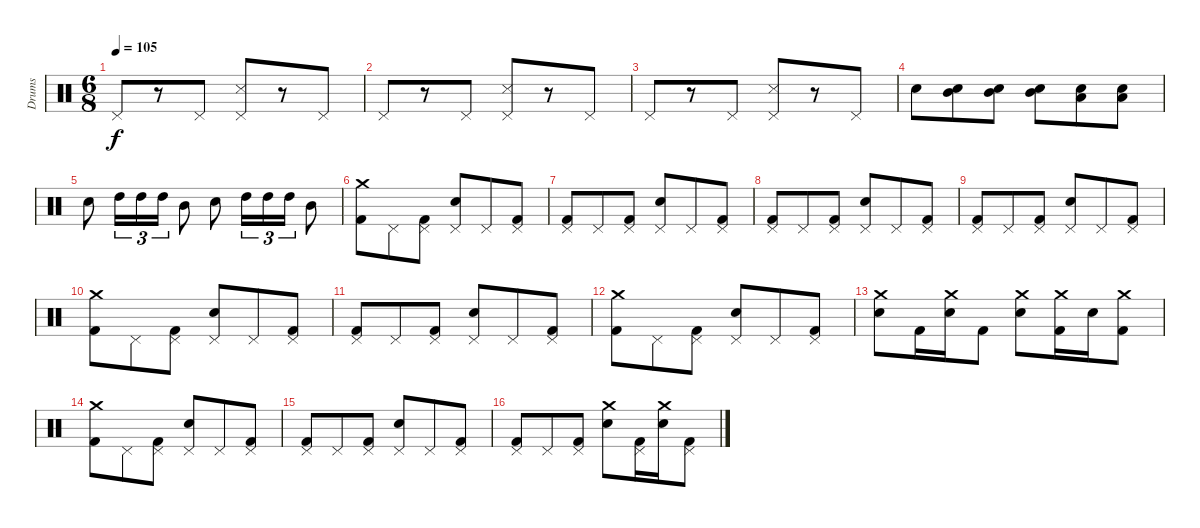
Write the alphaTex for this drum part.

\track ("Drums" "Drums") {instrument percussion}
\staff {score}
\articulation defaults
\ts (6 8)
\tempo 105
\clef neutral
\ks c "Pedal Hi-Hat (hit)".8{dy f}
r.8 "Pedal Hi-Hat (hit)".8 ("Pedal Hi-Hat (hit)" "Metronome (hit)").8 r.8 "Pedal Hi-Hat (hit)".8 |
"Pedal Hi-Hat (hit)".8 r.8 "Pedal Hi-Hat (hit)".8 ("Pedal Hi-Hat (hit)" "Metronome (hit)").8 r.8 "Pedal Hi-Hat (hit)".8 |
"Pedal Hi-Hat (hit)".8 r.8 "Pedal Hi-Hat (hit)".8 ("Pedal Hi-Hat (hit)" "Metronome (hit)").8 r.8 "Pedal Hi-Hat (hit)".8 |
"Snare (hit) 2".8 ("Mid Tom (hit)" "Snare (hit) 2").8{volume 8} ("Mid Tom (hit)" "Snare (hit) 2").8{volume 13} ("Mid Tom (hit)" "Snare (hit) 2").8 ("Low Tom (hit)" "Snare (hit) 2").8 ("Low Tom (hit)" "Snare (hit) 2").8 |
"Snare (hit) 2".8 "High Tom (hit)".16{tu (3 2)} "High Tom (hit)".16{tu (3 2)} "High Tom (hit)".16{tu (3 2)} "Mid Tom (hit)".8 "Snare (hit) 2".8 "High Tom (hit)".16{tu (3 2)} "High Tom (hit)".16{tu (3 2)} "High Tom (hit)".16{tu (3 2)} "Mid Tom (hit)".8 |
("Crash medium (hit)" "Kick (hit) 2").8 "Pedal Hi-Hat (hit)".8 ("Pedal Hi-Hat (hit)" "Kick (hit) 2").8 ("Pedal Hi-Hat (hit)" "Snare (hit) 2").8 "Pedal Hi-Hat (hit)".8 ("Pedal Hi-Hat (hit)" "Kick (hit) 2").8 |
("Pedal Hi-Hat (hit)" "Kick (hit) 2").8 "Pedal Hi-Hat (hit)".8 ("Pedal Hi-Hat (hit)" "Kick (hit) 2").8 ("Pedal Hi-Hat (hit)" "Snare (hit) 2").8 "Pedal Hi-Hat (hit)".8 ("Pedal Hi-Hat (hit)" "Kick (hit) 2").8 |
("Pedal Hi-Hat (hit)" "Kick (hit) 2").8 "Pedal Hi-Hat (hit)".8 ("Pedal Hi-Hat (hit)" "Kick (hit) 2").8 ("Pedal Hi-Hat (hit)" "Snare (hit) 2").8 "Pedal Hi-Hat (hit)".8 ("Pedal Hi-Hat (hit)" "Kick (hit) 2").8 |
("Pedal Hi-Hat (hit)" "Kick (hit) 2").8 "Pedal Hi-Hat (hit)".8 ("Pedal Hi-Hat (hit)" "Kick (hit) 2").8 ("Pedal Hi-Hat (hit)" "Snare (hit) 2").8 "Pedal Hi-Hat (hit)".8 ("Pedal Hi-Hat (hit)" "Kick (hit) 2").8 |
("Crash medium (hit)" "Kick (hit) 2").8 "Pedal Hi-Hat (hit)".8 ("Pedal Hi-Hat (hit)" "Kick (hit) 2").8 ("Pedal Hi-Hat (hit)" "Snare (hit) 2").8 "Pedal Hi-Hat (hit)".8 ("Pedal Hi-Hat (hit)" "Kick (hit) 2").8 |
("Pedal Hi-Hat (hit)" "Kick (hit) 2").8 "Pedal Hi-Hat (hit)".8 ("Pedal Hi-Hat (hit)" "Kick (hit) 2").8 ("Pedal Hi-Hat (hit)" "Snare (hit) 2").8 "Pedal Hi-Hat (hit)".8 ("Pedal Hi-Hat (hit)" "Kick (hit) 2").8 |
("Crash medium (hit)" "Kick (hit) 2").8 "Pedal Hi-Hat (hit)".8 ("Pedal Hi-Hat (hit)" "Kick (hit) 2").8 ("Pedal Hi-Hat (hit)" "Snare (hit) 2").8 "Pedal Hi-Hat (hit)".8 ("Pedal Hi-Hat (hit)" "Kick (hit) 2").8 |
("Crash medium (hit)" "Snare (hit) 2").8 "Kick (hit) 2".16 ("Crash medium (hit)" "Snare (hit) 2").16 "Kick (hit) 2".8 ("Crash medium (hit)" "Snare (hit) 2").8 ("Crash medium (hit)" "Kick (hit) 2").16 "Snare (hit) 2".16 ("Crash medium (hit)" "Kick (hit) 2").8 |
("Crash medium (hit)" "Kick (hit) 2").8 "Pedal Hi-Hat (hit)".8 ("Pedal Hi-Hat (hit)" "Kick (hit) 2").8 ("Pedal Hi-Hat (hit)" "Snare (hit) 2").8 "Pedal Hi-Hat (hit)".8 ("Pedal Hi-Hat (hit)" "Kick (hit) 2").8 |
("Pedal Hi-Hat (hit)" "Kick (hit) 2").8 "Pedal Hi-Hat (hit)".8 ("Pedal Hi-Hat (hit)" "Kick (hit) 2").8 ("Pedal Hi-Hat (hit)" "Snare (hit) 2").8 "Pedal Hi-Hat (hit)".8 ("Pedal Hi-Hat (hit)" "Kick (hit) 2").8 |
("Pedal Hi-Hat (hit)" "Kick (hit) 2").8 "Pedal Hi-Hat (hit)".8 ("Pedal Hi-Hat (hit)" "Kick (hit) 2").8 ("Crash medium (hit)" "Snare (hit) 2").8 ("Pedal Hi-Hat (hit)" "Kick (hit) 2").16 ("Crash medium (hit)" "Snare (hit) 2").16 ("Pedal Hi-Hat (hit)" "Kick (hit) 2").8
